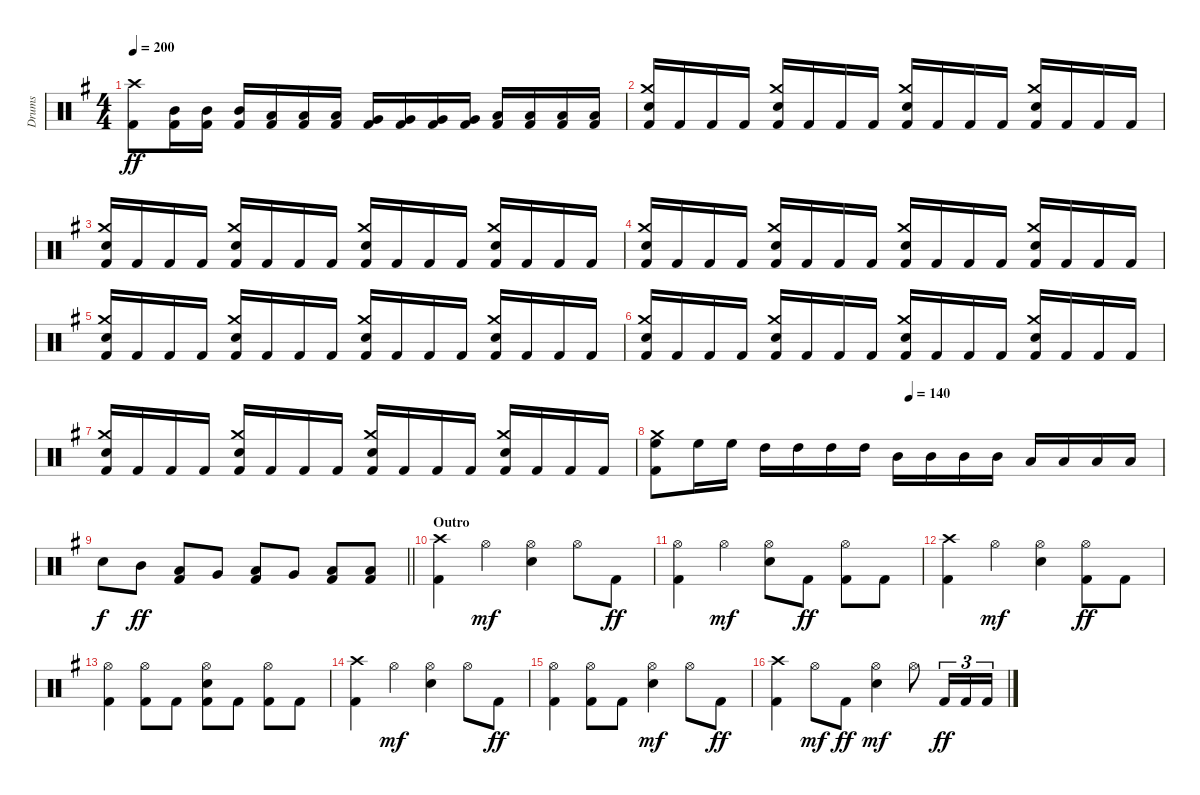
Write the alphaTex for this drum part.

\track ("Drums" "Drums") {instrument percussion}
\staff {score}
\articulation defaults
\ts (4 4)
\tempo 200
\clef neutral
\ks g
("Crash high (hit)" "Kick (hit) 2").8{dy ff} ("Mid Tom (hit)" "Kick (hit) 2").16 ("Mid Tom (hit)" "Kick (hit) 2").16 ("Mid Tom (hit)" "Kick (hit) 2").16 ("Low Tom (hit)" "Kick (hit) 2").16 ("Low Tom (hit)" "Kick (hit) 2").16 ("Low Tom (hit)" "Kick (hit) 2").16 ("Very Low Tom (hit)" "Kick (hit) 2").16 ("Very Low Tom (hit)" "Kick (hit) 2").16 ("Very Low Tom (hit)" "Kick (hit) 2").16 ("Very Low Tom (hit)" "Kick (hit) 2").16 ("Low Floor Tom (hit)" "Kick (hit) 2").16 ("Low Floor Tom (hit)" "Kick (hit) 2").16 ("Low Floor Tom (hit)" "Kick (hit) 2").16 ("Low Floor Tom (hit)" "Kick (hit) 2").16 |
("Crash medium (hit)" "Snare (hit) 2" "Kick (hit) 2").16 "Kick (hit) 2".16 "Kick (hit) 2".16 "Kick (hit) 2".16 ("Crash medium (hit)" "Snare (hit) 2" "Kick (hit) 2").16 "Kick (hit) 2".16 "Kick (hit) 2".16 "Kick (hit) 2".16 ("Crash medium (hit)" "Snare (hit) 2" "Kick (hit) 2").16 "Kick (hit) 2".16 "Kick (hit) 2".16 "Kick (hit) 2".16 ("Crash medium (hit)" "Snare (hit) 2" "Kick (hit) 2").16 "Kick (hit) 2".16 "Kick (hit) 2".16 "Kick (hit) 2".16 |
("Crash medium (hit)" "Snare (hit) 2" "Kick (hit) 2").16 "Kick (hit) 2".16 "Kick (hit) 2".16 "Kick (hit) 2".16 ("Crash medium (hit)" "Snare (hit) 2" "Kick (hit) 2").16 "Kick (hit) 2".16 "Kick (hit) 2".16 "Kick (hit) 2".16 ("Crash medium (hit)" "Snare (hit) 2" "Kick (hit) 2").16 "Kick (hit) 2".16 "Kick (hit) 2".16 "Kick (hit) 2".16 ("Crash medium (hit)" "Snare (hit) 2" "Kick (hit) 2").16 "Kick (hit) 2".16 "Kick (hit) 2".16 "Kick (hit) 2".16 |
("Crash medium (hit)" "Snare (hit) 2" "Kick (hit) 2").16 "Kick (hit) 2".16 "Kick (hit) 2".16 "Kick (hit) 2".16 ("Crash medium (hit)" "Snare (hit) 2" "Kick (hit) 2").16 "Kick (hit) 2".16 "Kick (hit) 2".16 "Kick (hit) 2".16 ("Crash medium (hit)" "Snare (hit) 2" "Kick (hit) 2").16 "Kick (hit) 2".16 "Kick (hit) 2".16 "Kick (hit) 2".16 ("Crash medium (hit)" "Snare (hit) 2" "Kick (hit) 2").16 "Kick (hit) 2".16 "Kick (hit) 2".16 "Kick (hit) 2".16 |
("Crash medium (hit)" "Snare (hit) 2" "Kick (hit) 2").16 "Kick (hit) 2".16 "Kick (hit) 2".16 "Kick (hit) 2".16 ("Crash medium (hit)" "Snare (hit) 2" "Kick (hit) 2").16 "Kick (hit) 2".16 "Kick (hit) 2".16 "Kick (hit) 2".16 ("Crash medium (hit)" "Snare (hit) 2" "Kick (hit) 2").16 "Kick (hit) 2".16 "Kick (hit) 2".16 "Kick (hit) 2".16 ("Crash medium (hit)" "Snare (hit) 2" "Kick (hit) 2").16 "Kick (hit) 2".16 "Kick (hit) 2".16 "Kick (hit) 2".16 |
("Crash medium (hit)" "Snare (hit) 2" "Kick (hit) 2").16 "Kick (hit) 2".16 "Kick (hit) 2".16 "Kick (hit) 2".16 ("Crash medium (hit)" "Snare (hit) 2" "Kick (hit) 2").16 "Kick (hit) 2".16 "Kick (hit) 2".16 "Kick (hit) 2".16 ("Crash medium (hit)" "Snare (hit) 2" "Kick (hit) 2").16 "Kick (hit) 2".16 "Kick (hit) 2".16 "Kick (hit) 2".16 ("Crash medium (hit)" "Snare (hit) 2" "Kick (hit) 2").16 "Kick (hit) 2".16 "Kick (hit) 2".16 "Kick (hit) 2".16 |
("Crash medium (hit)" "Snare (hit) 2" "Kick (hit) 2").16 "Kick (hit) 2".16 "Kick (hit) 2".16 "Kick (hit) 2".16 ("Crash medium (hit)" "Snare (hit) 2" "Kick (hit) 2").16 "Kick (hit) 2".16 "Kick (hit) 2".16 "Kick (hit) 2".16 ("Crash medium (hit)" "Snare (hit) 2" "Kick (hit) 2").16 "Kick (hit) 2".16 "Kick (hit) 2".16 "Kick (hit) 2".16 ("Crash medium (hit)" "Snare (hit) 2" "Kick (hit) 2").16 "Kick (hit) 2".16 "Kick (hit) 2".16 "Kick (hit) 2".16 |
\tempo (140 0.5)
("Crash medium (hit)" "High Floor Tom (hit)" "Kick (hit) 2").8 "High Floor Tom (hit)".16 "High Floor Tom (hit)".16 "High Tom (hit)".16 "High Tom (hit)".16 "High Tom (hit)".16 "High Tom (hit)".16 "Mid Tom (hit)".16 "Mid Tom (hit)".16 "Mid Tom (hit)".16 "Mid Tom (hit)".16 "Low Tom (hit)".16 "Low Tom (hit)".16 "Low Tom (hit)".16 "Low Tom (hit)".16 |
\barLineRight lightlight "Snare (hit) 2".8{dy f} "Mid Tom (hit)".8{dy ff}
("Low Tom (hit)" "Kick (hit) 2").8 "Very Low Tom (hit)".8 ("Low Tom (hit)" "Kick (hit) 2").8 "Very Low Tom (hit)".8 ("Low Floor Tom (hit)" "Kick (hit) 2").8 ("Low Floor Tom (hit)" "Kick (hit) 2").8 |
\section ("" "Outro")
("Crash high (hit)" "Kick (hit) 2").4 "Hi-Hat (open)".4{dy mf} ("Hi-Hat (open)" "Snare (hit) 2").4 "Hi-Hat (open)".8 "Kick (hit) 2".8{dy ff} |
("Hi-Hat (open)" "Kick (hit) 2").4 "Hi-Hat (open)".4{dy mf} ("Hi-Hat (open)" "Snare (hit) 2").8 "Kick (hit) 2".8{dy ff} ("Hi-Hat (open)" "Kick (hit) 2").8 "Kick (hit) 2".8 |
("Crash high (hit)" "Kick (hit) 2").4 "Hi-Hat (open)".4{dy mf} ("Hi-Hat (open)" "Snare (hit) 2").4 ("Hi-Hat (open)" "Kick (hit) 2").8{dy ff} "Kick (hit) 2".8 |
("Hi-Hat (open)" "Kick (hit) 2").4 ("Hi-Hat (open)" "Kick (hit) 2").8 "Kick (hit) 2".8 ("Hi-Hat (open)" "Snare (hit) 2" "Kick (hit) 2").8 "Kick (hit) 2".8 ("Hi-Hat (open)" "Kick (hit) 2").8 "Kick (hit) 2".8 |
("Crash high (hit)" "Kick (hit) 2").4 "Hi-Hat (open)".4{dy mf} ("Hi-Hat (open)" "Snare (hit) 2").4 "Hi-Hat (open)".8 "Kick (hit) 2".8{dy ff} |
("Hi-Hat (open)" "Kick (hit) 2").4 ("Hi-Hat (open)" "Kick (hit) 2").8 "Kick (hit) 2".8 ("Hi-Hat (open)" "Snare (hit) 2").4{dy mf} "Hi-Hat (open)".8 "Kick (hit) 2".8{dy ff} |
("Crash high (hit)" "Kick (hit) 2").4 "Hi-Hat (open)".8{dy mf} "Kick (hit) 2".8{dy ff} ("Hi-Hat (open)" "Snare (hit) 2").4{dy mf} "Hi-Hat (open)".8 "Kick (hit) 2".16{tu (3 2) dy ff} "Kick (hit) 2".16{tu (3 2)} "Kick (hit) 2".16{tu (3 2)}
